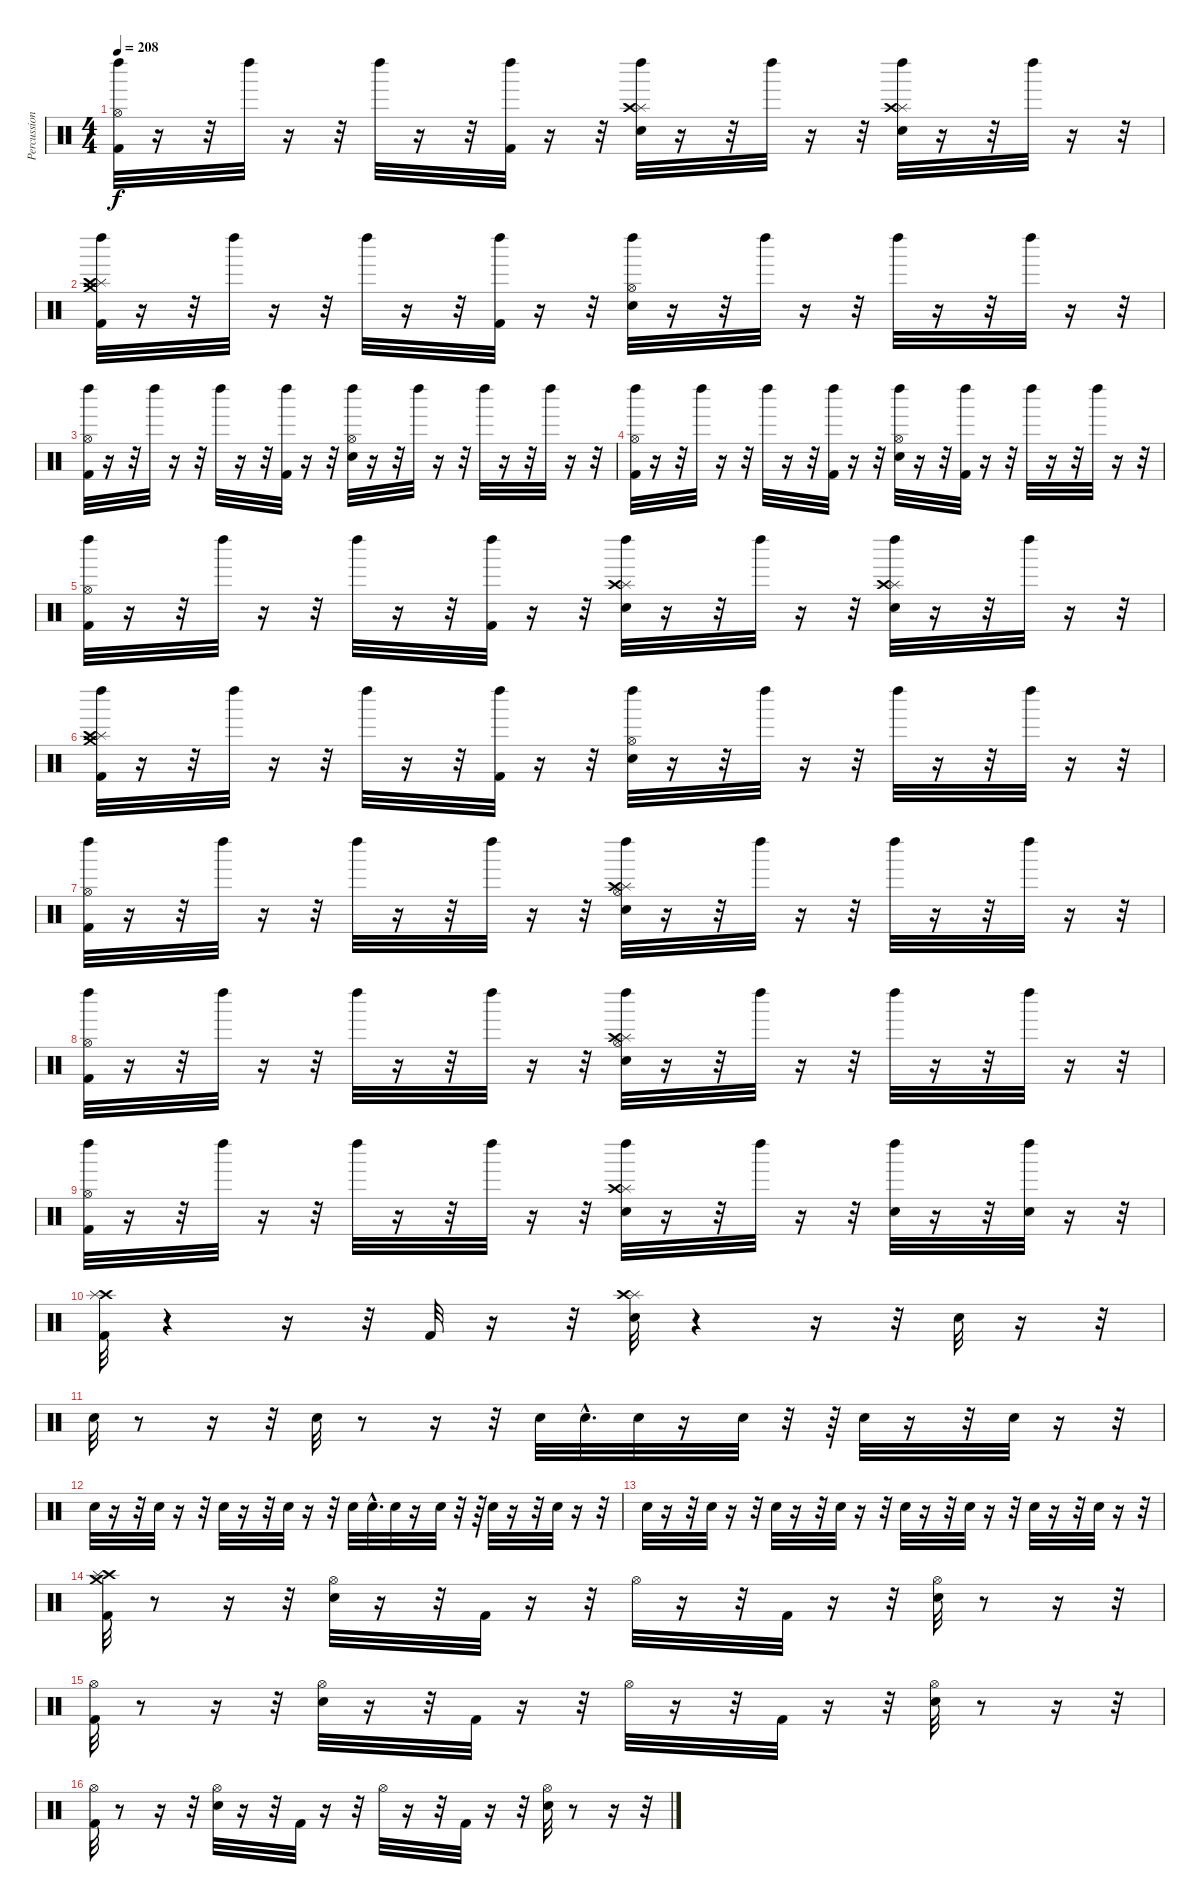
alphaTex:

\track ("Percussion" "Percussion") {instrument percussion}
\staff {score}
\articulation defaults
\ts (4 4)
\tempo 208
\clef neutral
\ks c
("Left Maraca (hit)" "Hi-Hat (open)" "Kick (hit) 2").32{dy f} r.16 r.32 "Left Maraca (hit)".32 r.16 r.32 "Left Maraca (hit)".32 r.16 r.32 ("Left Maraca (hit)" "Kick (hit) 2").32 r.16 r.32 ("Splash (hit)" "Crash high (hit)" "Left Maraca (hit)" "Snare (hit) 2").32 r.16 r.32 "Left Maraca (hit)".32 r.16 r.32 ("Splash (hit)" "Crash high (hit)" "Snare (hit) 2" "Left Maraca (hit)").32 r.16 r.32 "Left Maraca (hit)".32 r.16 r.32 |
("Left Maraca (hit)" "Crash medium (hit)" "Splash (hit)" "Crash high (hit)" "Kick (hit) 2").32 r.16 r.32 "Left Maraca (hit)".32 r.16 r.32 "Left Maraca (hit)".32 r.16 r.32 ("Kick (hit) 2" "Left Maraca (hit)").32 r.16 r.32 ("Left Maraca (hit)" "Hi-Hat (open)" "Snare (hit) 2").32 r.16 r.32 "Left Maraca (hit)".32 r.16 r.32 "Left Maraca (hit)".32 r.16 r.32 "Left Maraca (hit)".32 r.16 r.32 |
("Left Maraca (hit)" "Hi-Hat (open)" "Kick (hit) 2").32 r.16 r.32 "Left Maraca (hit)".32 r.16 r.32 "Left Maraca (hit)".32 r.16 r.32 ("Left Maraca (hit)" "Kick (hit) 2").32 r.16 r.32 ("Left Maraca (hit)" "Hi-Hat (open)" "Snare (hit) 2").32 r.16 r.32 "Left Maraca (hit)".32 r.16 r.32 "Left Maraca (hit)".32 r.16 r.32 "Left Maraca (hit)".32 r.16 r.32 |
("Left Maraca (hit)" "Hi-Hat (open)" "Kick (hit) 2").32 r.16 r.32 "Left Maraca (hit)".32 r.16 r.32 "Left Maraca (hit)".32 r.16 r.32 ("Left Maraca (hit)" "Kick (hit) 2").32 r.16 r.32 ("Left Maraca (hit)" "Hi-Hat (open)" "Snare (hit) 2").32 r.16 r.32 ("Kick (hit) 2" "Left Maraca (hit)").32 r.16 r.32 "Left Maraca (hit)".32 r.16 r.32 "Left Maraca (hit)".32 r.16 r.32 |
("Left Maraca (hit)" "Hi-Hat (open)" "Kick (hit) 2").32 r.16 r.32 "Left Maraca (hit)".32 r.16 r.32 "Left Maraca (hit)".32 r.16 r.32 ("Left Maraca (hit)" "Kick (hit) 2").32 r.16 r.32 ("Splash (hit)" "Crash high (hit)" "Left Maraca (hit)" "Snare (hit) 2").32 r.16 r.32 "Left Maraca (hit)".32 r.16 r.32 ("Splash (hit)" "Crash high (hit)" "Snare (hit) 2" "Left Maraca (hit)").32 r.16 r.32 "Left Maraca (hit)".32 r.16 r.32 |
("Left Maraca (hit)" "Crash medium (hit)" "Splash (hit)" "Crash high (hit)" "Kick (hit) 2").32 r.16 r.32 "Left Maraca (hit)".32 r.16 r.32 "Left Maraca (hit)".32 r.16 r.32 ("Kick (hit) 2" "Left Maraca (hit)").32 r.16 r.32 ("Left Maraca (hit)" "Hi-Hat (open)" "Snare (hit) 2").32 r.16 r.32 "Left Maraca (hit)".32 r.16 r.32 "Left Maraca (hit)".32 r.16 r.32 "Left Maraca (hit)".32 r.16 r.32 |
("Left Maraca (hit)" "Hi-Hat (open)" "Kick (hit) 2").32 r.16 r.32 "Left Maraca (hit)".32 r.16 r.32 "Left Maraca (hit)".32 r.16 r.32 "Left Maraca (hit)".32 r.16 r.32 ("Splash (hit)" "Crash high (hit)" "Left Maraca (hit)" "Hi-Hat (open)" "Snare (hit) 2").32 r.16 r.32 "Left Maraca (hit)".32 r.16 r.32 "Left Maraca (hit)".32 r.16 r.32 "Left Maraca (hit)".32 r.16 r.32 |
("Left Maraca (hit)" "Hi-Hat (open)" "Kick (hit) 2").32 r.16 r.32 "Left Maraca (hit)".32 r.16 r.32 "Left Maraca (hit)".32 r.16 r.32 "Left Maraca (hit)".32 r.16 r.32 ("Splash (hit)" "Crash high (hit)" "Left Maraca (hit)" "Hi-Hat (open)" "Snare (hit) 2").32 r.16 r.32 "Left Maraca (hit)".32 r.16 r.32 "Left Maraca (hit)".32 r.16 r.32 "Left Maraca (hit)".32 r.16 r.32 |
("Left Maraca (hit)" "Hi-Hat (open)" "Kick (hit) 2").32 r.16 r.32 "Left Maraca (hit)".32 r.16 r.32 "Left Maraca (hit)".32 r.16 r.32 "Left Maraca (hit)".32 r.16 r.32 ("Splash (hit)" "Crash high (hit)" "Left Maraca (hit)" "Snare (hit) 2").32 r.16 r.32 "Left Maraca (hit)".32 r.16 r.32 ("Snare (hit) 2" "Left Maraca (hit)").32 r.16 r.32 ("Snare (hit) 2" "Left Maraca (hit)").32 r.16 r.32 |
("Kick (hit) 2" "Crash high (hit)" "Splash (hit)").32 r.4 r.16 r.32 "Kick (hit) 2".32 r.16 r.32 ("Splash (hit)" "Crash high (hit)" "Snare (hit) 2").32 r.4 r.16 r.32 "Snare (hit) 2".32 r.16 r.32 |
"Snare (hit) 2".32 r.8 r.16 r.32 "Snare (hit) 2".32 r.8 r.16 r.32 "Snare (hit) 2".32 "Snare (hit) 2"{hac}.32{d} "Snare (hit) 2".32 r.16 "Snare (hit) 2".32 r.32 r.64 "Snare (hit) 2".32 r.16 r.32 "Snare (hit) 2".32 r.16 r.32 |
"Snare (hit) 2".32 r.16 r.32 "Snare (hit) 2".32 r.16 r.32 "Snare (hit) 2".32 r.16 r.32 "Snare (hit) 2".32 r.16 r.32 "Snare (hit) 2".32 "Snare (hit) 2"{hac}.32{d} "Snare (hit) 2".32 r.16 "Snare (hit) 2".32 r.32 r.64 "Snare (hit) 2".32 r.16 r.32 "Snare (hit) 2".32 r.16 r.32 |
"Snare (hit) 2".32 r.16 r.32 "Snare (hit) 2".32 r.16 r.32 "Snare (hit) 2".32 r.16 r.32 "Snare (hit) 2".32 r.16 r.32 "Snare (hit) 2".32 r.16 r.32 "Snare (hit) 2".32 r.16 r.32 "Snare (hit) 2".32 r.16 r.32 "Snare (hit) 2".32 r.16 r.32 |
("Kick (hit) 2" "Crash high (hit)" "Crash medium (hit)" "Splash (hit)").32 r.8 r.16 r.32 ("Snare (hit) 2" "Hi-Hat (open)").32 r.16 r.32 "Kick (hit) 2".32 r.16 r.32 "Hi-Hat (open)".32 r.16 r.32 "Kick (hit) 2".32 r.16 r.32 ("Snare (hit) 2" "Hi-Hat (open)").32 r.8 r.16 r.32 |
("Kick (hit) 2" "Hi-Hat (open)").32 r.8 r.16 r.32 ("Snare (hit) 2" "Hi-Hat (open)").32 r.16 r.32 "Kick (hit) 2".32 r.16 r.32 "Hi-Hat (open)".32 r.16 r.32 "Kick (hit) 2".32 r.16 r.32 ("Snare (hit) 2" "Hi-Hat (open)").32 r.8 r.16 r.32 |
("Kick (hit) 2" "Hi-Hat (open)").32 r.8 r.16 r.32 ("Snare (hit) 2" "Hi-Hat (open)").32 r.16 r.32 "Kick (hit) 2".32 r.16 r.32 "Hi-Hat (open)".32 r.16 r.32 "Kick (hit) 2".32 r.16 r.32 ("Snare (hit) 2" "Hi-Hat (open)").32 r.8 r.16 r.32
